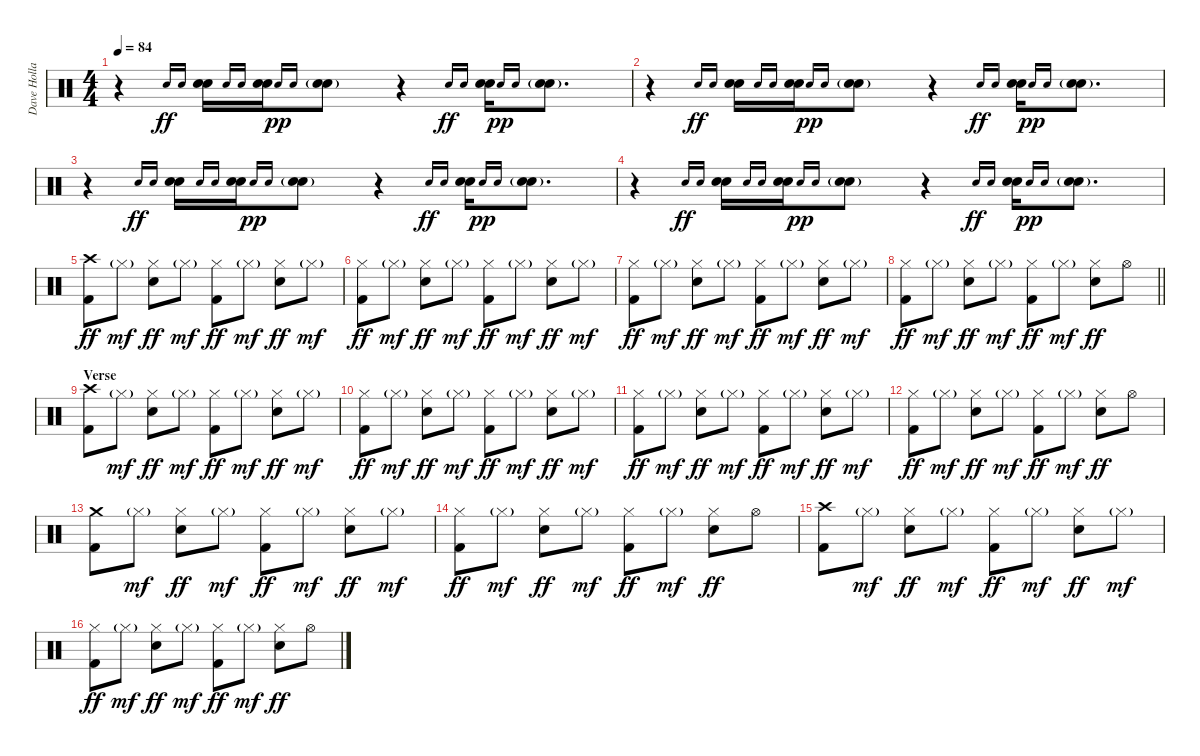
\track ("Dave Holland" "Dave Holla") {instrument percussion}
\staff {score}
\articulation defaults
\ts (4 4)
\tempo 84
\clef neutral
\ks c
r.4{dy ff} "Electric Snare (hit)".16{gr onbeat} "Snare (hit) 2".16{gr onbeat} ("Electric Snare (hit)" "Snare (hit) 2").16 "Electric Snare (hit)".16{gr onbeat} "Snare (hit) 2".16{gr onbeat} ("Electric Snare (hit)" "Snare (hit) 2").16 "Electric Snare (hit)".16{gr onbeat dy pp} "Snare (hit) 2".16{gr onbeat} ("Electric Snare (hit)"{g} "Snare (hit) 2"{g}).8 r.4 "Electric Snare (hit)".16{gr onbeat dy ff} "Snare (hit) 2".16{gr onbeat} ("Electric Snare (hit)" "Snare (hit) 2").16 "Electric Snare (hit)".16{gr onbeat dy pp} "Snare (hit) 2".16{gr onbeat} ("Electric Snare (hit)"{g} "Snare (hit) 2"{g}).8{d} |
r.4 "Electric Snare (hit)".16{gr onbeat dy ff} "Snare (hit) 2".16{gr onbeat} ("Electric Snare (hit)" "Snare (hit) 2").16 "Electric Snare (hit)".16{gr onbeat} "Snare (hit) 2".16{gr onbeat} ("Electric Snare (hit)" "Snare (hit) 2").16 "Electric Snare (hit)".16{gr onbeat dy pp} "Snare (hit) 2".16{gr onbeat} ("Electric Snare (hit)"{g} "Snare (hit) 2"{g}).8 r.4 "Electric Snare (hit)".16{gr onbeat dy ff} "Snare (hit) 2".16{gr onbeat} ("Electric Snare (hit)" "Snare (hit) 2").16 "Electric Snare (hit)".16{gr onbeat dy pp} "Snare (hit) 2".16{gr onbeat} ("Electric Snare (hit)"{g} "Snare (hit) 2"{g}).8{d} |
r.4 "Electric Snare (hit)".16{gr onbeat dy ff} "Snare (hit) 2".16{gr onbeat} ("Electric Snare (hit)" "Snare (hit) 2").16 "Electric Snare (hit)".16{gr onbeat} "Snare (hit) 2".16{gr onbeat} ("Electric Snare (hit)" "Snare (hit) 2").16 "Electric Snare (hit)".16{gr onbeat dy pp} "Snare (hit) 2".16{gr onbeat} ("Electric Snare (hit)"{g} "Snare (hit) 2"{g}).8 r.4 "Electric Snare (hit)".16{gr onbeat dy ff} "Snare (hit) 2".16{gr onbeat} ("Electric Snare (hit)" "Snare (hit) 2").16 "Electric Snare (hit)".16{gr onbeat dy pp} "Snare (hit) 2".16{gr onbeat} ("Electric Snare (hit)"{g} "Snare (hit) 2"{g}).8{d} |
r.4 "Electric Snare (hit)".16{gr onbeat dy ff} "Snare (hit) 2".16{gr onbeat} ("Electric Snare (hit)" "Snare (hit) 2").16 "Electric Snare (hit)".16{gr onbeat} "Snare (hit) 2".16{gr onbeat} ("Electric Snare (hit)" "Snare (hit) 2").16 "Electric Snare (hit)".16{gr onbeat dy pp} "Snare (hit) 2".16{gr onbeat} ("Electric Snare (hit)"{g} "Snare (hit) 2"{g}).8 r.4 "Electric Snare (hit)".16{gr onbeat dy ff} "Snare (hit) 2".16{gr onbeat} ("Electric Snare (hit)" "Snare (hit) 2").16 "Electric Snare (hit)".16{gr onbeat dy pp} "Snare (hit) 2".16{gr onbeat} ("Electric Snare (hit)"{g} "Snare (hit) 2"{g}).8{d} |
("Crash high (hit)" "Kick (hit) 2").8{dy ff} "Hi-Hat (closed)"{g}.8{dy mf} ("Hi-Hat (closed)" "Snare (hit) 2").8{dy ff} "Hi-Hat (closed)"{g}.8{dy mf} ("Hi-Hat (closed)" "Kick (hit) 2").8{dy ff} "Hi-Hat (closed)"{g}.8{dy mf} ("Hi-Hat (closed)" "Snare (hit) 2").8{dy ff} "Hi-Hat (closed)"{g}.8{dy mf} |
("Hi-Hat (closed)" "Kick (hit) 2").8{dy ff} "Hi-Hat (closed)"{g}.8{dy mf} ("Hi-Hat (closed)" "Snare (hit) 2").8{dy ff} "Hi-Hat (closed)"{g}.8{dy mf} ("Hi-Hat (closed)" "Kick (hit) 2").8{dy ff} "Hi-Hat (closed)"{g}.8{dy mf} ("Hi-Hat (closed)" "Snare (hit) 2").8{dy ff} "Hi-Hat (closed)"{g}.8{dy mf} |
("Hi-Hat (closed)" "Kick (hit) 2").8{dy ff} "Hi-Hat (closed)"{g}.8{dy mf} ("Hi-Hat (closed)" "Snare (hit) 2").8{dy ff} "Hi-Hat (closed)"{g}.8{dy mf} ("Hi-Hat (closed)" "Kick (hit) 2").8{dy ff} "Hi-Hat (closed)"{g}.8{dy mf} ("Hi-Hat (closed)" "Snare (hit) 2").8{dy ff} "Hi-Hat (closed)"{g}.8{dy mf} |
\barLineRight lightlight
("Hi-Hat (closed)" "Kick (hit) 2").8{dy ff} "Hi-Hat (closed)"{g}.8{dy mf} ("Hi-Hat (closed)" "Snare (hit) 2").8{dy ff} "Hi-Hat (closed)"{g}.8{dy mf} ("Hi-Hat (closed)" "Kick (hit) 2").8{dy ff} "Hi-Hat (closed)"{g}.8{dy mf} ("Hi-Hat (closed)" "Snare (hit) 2").8{dy ff} "Hi-Hat (open)".8 |
\section ("" "Verse")
("Crash high (hit)" "Kick (hit) 2").8 "Hi-Hat (closed)"{g}.8{dy mf} ("Hi-Hat (closed)" "Snare (hit) 2").8{dy ff} "Hi-Hat (closed)"{g}.8{dy mf} ("Hi-Hat (closed)" "Kick (hit) 2").8{dy ff} "Hi-Hat (closed)"{g}.8{dy mf} ("Hi-Hat (closed)" "Snare (hit) 2").8{dy ff} "Hi-Hat (closed)"{g}.8{dy mf} |
("Hi-Hat (closed)" "Kick (hit) 2").8{dy ff} "Hi-Hat (closed)"{g}.8{dy mf} ("Hi-Hat (closed)" "Snare (hit) 2").8{dy ff} "Hi-Hat (closed)"{g}.8{dy mf} ("Hi-Hat (closed)" "Kick (hit) 2").8{dy ff} "Hi-Hat (closed)"{g}.8{dy mf} ("Hi-Hat (closed)" "Snare (hit) 2").8{dy ff} "Hi-Hat (closed)"{g}.8{dy mf} |
("Hi-Hat (closed)" "Kick (hit) 2").8{dy ff} "Hi-Hat (closed)"{g}.8{dy mf} ("Hi-Hat (closed)" "Snare (hit) 2").8{dy ff} "Hi-Hat (closed)"{g}.8{dy mf} ("Hi-Hat (closed)" "Kick (hit) 2").8{dy ff} "Hi-Hat (closed)"{g}.8{dy mf} ("Hi-Hat (closed)" "Snare (hit) 2").8{dy ff} "Hi-Hat (closed)"{g}.8{dy mf} |
("Hi-Hat (closed)" "Kick (hit) 2").8{dy ff} "Hi-Hat (closed)"{g}.8{dy mf} ("Hi-Hat (closed)" "Snare (hit) 2").8{dy ff} "Hi-Hat (closed)"{g}.8{dy mf} ("Hi-Hat (closed)" "Kick (hit) 2").8{dy ff} "Hi-Hat (closed)"{g}.8{dy mf} ("Hi-Hat (closed)" "Snare (hit) 2").8{dy ff} "Hi-Hat (open)".8 |
("Crash medium (hit)" "Kick (hit) 2").8 "Hi-Hat (closed)"{g}.8{dy mf} ("Hi-Hat (closed)" "Snare (hit) 2").8{dy ff} "Hi-Hat (closed)"{g}.8{dy mf} ("Hi-Hat (closed)" "Kick (hit) 2").8{dy ff} "Hi-Hat (closed)"{g}.8{dy mf} ("Hi-Hat (closed)" "Snare (hit) 2").8{dy ff} "Hi-Hat (closed)"{g}.8{dy mf} |
("Hi-Hat (closed)" "Kick (hit) 2").8{dy ff} "Hi-Hat (closed)"{g}.8{dy mf} ("Hi-Hat (closed)" "Snare (hit) 2").8{dy ff} "Hi-Hat (closed)"{g}.8{dy mf} ("Hi-Hat (closed)" "Kick (hit) 2").8{dy ff} "Hi-Hat (closed)"{g}.8{dy mf} ("Hi-Hat (closed)" "Snare (hit) 2").8{dy ff} "Hi-Hat (open)".8 |
("Crash high (hit)" "Kick (hit) 2").8 "Hi-Hat (closed)"{g}.8{dy mf} ("Hi-Hat (closed)" "Snare (hit) 2").8{dy ff} "Hi-Hat (closed)"{g}.8{dy mf} ("Hi-Hat (closed)" "Kick (hit) 2").8{dy ff} "Hi-Hat (closed)"{g}.8{dy mf} ("Hi-Hat (closed)" "Snare (hit) 2").8{dy ff} "Hi-Hat (closed)"{g}.8{dy mf} |
("Hi-Hat (closed)" "Kick (hit) 2").8{dy ff} "Hi-Hat (closed)"{g}.8{dy mf} ("Hi-Hat (closed)" "Snare (hit) 2").8{dy ff} "Hi-Hat (closed)"{g}.8{dy mf} ("Hi-Hat (closed)" "Kick (hit) 2").8{dy ff} "Hi-Hat (closed)"{g}.8{dy mf} ("Hi-Hat (closed)" "Snare (hit) 2").8{dy ff} "Hi-Hat (open)".8
